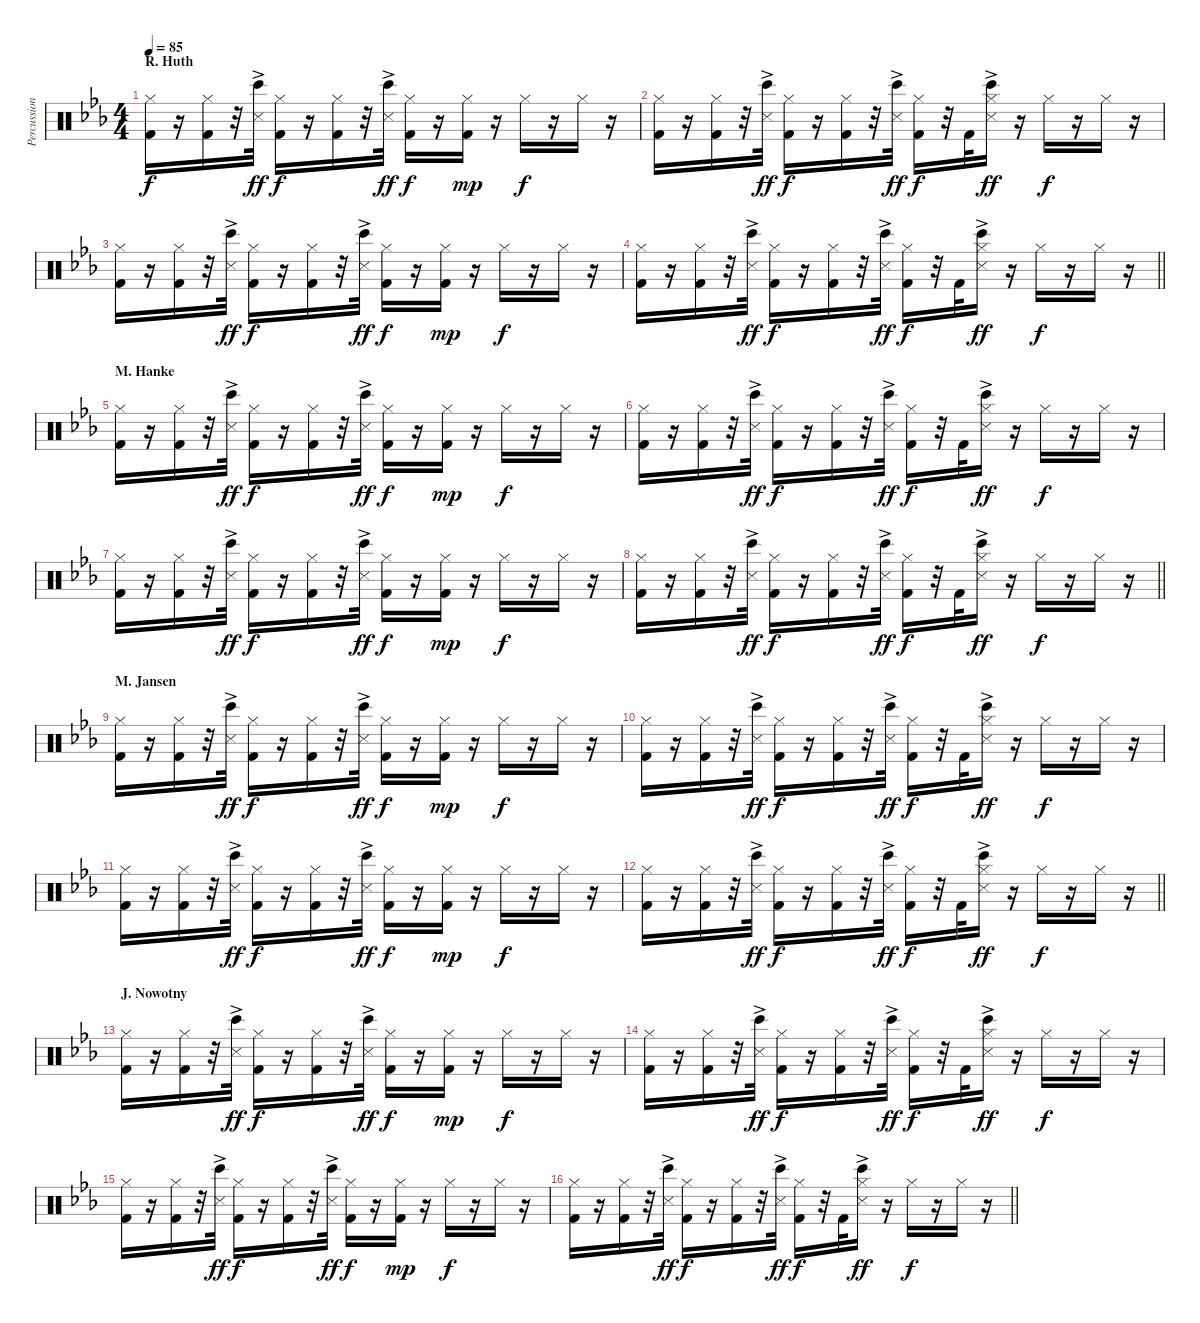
\track ("Percussion" "Percussion") {instrument percussion}
\staff {score}
\articulation defaults
\ts (4 4)
\section ("" "R. Huth")
\tempo 85
\clef neutral
\ks cminor
("Hi-Hat (closed)" "Kick (hit) 2").16{dy f} r.16 ("Hi-Hat (closed)" "Kick (hit) 2").16 r.32 ("Bongo High (hit)" "Metronome (hit)"{ac}).32{dy ff} ("Hi-Hat (closed)" "Kick (hit) 2").16{dy f} r.16 ("Hi-Hat (closed)" "Kick (hit) 2").16 r.32 ("Bongo High (hit)" "Metronome (hit)"{ac}).32{dy ff} ("Hi-Hat (closed)" "Kick (hit) 2").16{dy f} r.16 ("Hi-Hat (closed)" "Kick (hit) 2").16{dy mp} r.16 "Hi-Hat (closed)".16{dy f} r.16 "Hi-Hat (closed)".16 r.16 |
("Hi-Hat (closed)" "Kick (hit) 2").16 r.16 ("Hi-Hat (closed)" "Kick (hit) 2").16 r.32 ("Bongo High (hit)" "Metronome (hit)"{ac}).32{dy ff} ("Hi-Hat (closed)" "Kick (hit) 2").16{dy f} r.16 ("Hi-Hat (closed)" "Kick (hit) 2").16 r.32 ("Bongo High (hit)" "Metronome (hit)"{ac}).32{dy ff} ("Hi-Hat (closed)" "Kick (hit) 2").16{dy f} r.32 "Kick (hit) 2".32 ("Hi-Hat (closed)" "Bongo High (hit)" "Metronome (hit)"{ac}).16{dy ff} r.16 "Hi-Hat (closed)".16{dy f} r.16 "Hi-Hat (closed)".16 r.16 |
("Hi-Hat (closed)" "Kick (hit) 2").16 r.16 ("Hi-Hat (closed)" "Kick (hit) 2").16 r.32 ("Bongo High (hit)" "Metronome (hit)"{ac}).32{dy ff} ("Hi-Hat (closed)" "Kick (hit) 2").16{dy f} r.16 ("Hi-Hat (closed)" "Kick (hit) 2").16 r.32 ("Bongo High (hit)" "Metronome (hit)"{ac}).32{dy ff} ("Hi-Hat (closed)" "Kick (hit) 2").16{dy f} r.16 ("Hi-Hat (closed)" "Kick (hit) 2").16{dy mp} r.16 "Hi-Hat (closed)".16{dy f} r.16 "Hi-Hat (closed)".16 r.16 |
\barLineRight lightlight
("Hi-Hat (closed)" "Kick (hit) 2").16 r.16 ("Hi-Hat (closed)" "Kick (hit) 2").16 r.32 ("Bongo High (hit)" "Metronome (hit)"{ac}).32{dy ff} ("Hi-Hat (closed)" "Kick (hit) 2").16{dy f} r.16 ("Hi-Hat (closed)" "Kick (hit) 2").16 r.32 ("Bongo High (hit)" "Metronome (hit)"{ac}).32{dy ff} ("Hi-Hat (closed)" "Kick (hit) 2").16{dy f} r.32 "Kick (hit) 2".32 ("Hi-Hat (closed)" "Bongo High (hit)" "Metronome (hit)"{ac}).16{dy ff} r.16 "Hi-Hat (closed)".16{dy f} r.16 "Hi-Hat (closed)".16 r.16 |
\section ("" "M. Hanke")
("Hi-Hat (closed)" "Kick (hit) 2").16 r.16 ("Hi-Hat (closed)" "Kick (hit) 2").16 r.32 ("Bongo High (hit)" "Metronome (hit)"{ac}).32{dy ff} ("Hi-Hat (closed)" "Kick (hit) 2").16{dy f} r.16 ("Hi-Hat (closed)" "Kick (hit) 2").16 r.32 ("Bongo High (hit)" "Metronome (hit)"{ac}).32{dy ff} ("Hi-Hat (closed)" "Kick (hit) 2").16{dy f} r.16 ("Hi-Hat (closed)" "Kick (hit) 2").16{dy mp} r.16 "Hi-Hat (closed)".16{dy f} r.16 "Hi-Hat (closed)".16 r.16 |
("Hi-Hat (closed)" "Kick (hit) 2").16 r.16 ("Hi-Hat (closed)" "Kick (hit) 2").16 r.32 ("Bongo High (hit)" "Metronome (hit)"{ac}).32{dy ff} ("Hi-Hat (closed)" "Kick (hit) 2").16{dy f} r.16 ("Hi-Hat (closed)" "Kick (hit) 2").16 r.32 ("Bongo High (hit)" "Metronome (hit)"{ac}).32{dy ff} ("Hi-Hat (closed)" "Kick (hit) 2").16{dy f} r.32 "Kick (hit) 2".32 ("Hi-Hat (closed)" "Bongo High (hit)" "Metronome (hit)"{ac}).16{dy ff} r.16 "Hi-Hat (closed)".16{dy f} r.16 "Hi-Hat (closed)".16 r.16 |
("Hi-Hat (closed)" "Kick (hit) 2").16 r.16 ("Hi-Hat (closed)" "Kick (hit) 2").16 r.32 ("Bongo High (hit)" "Metronome (hit)"{ac}).32{dy ff} ("Hi-Hat (closed)" "Kick (hit) 2").16{dy f} r.16 ("Hi-Hat (closed)" "Kick (hit) 2").16 r.32 ("Bongo High (hit)" "Metronome (hit)"{ac}).32{dy ff} ("Hi-Hat (closed)" "Kick (hit) 2").16{dy f} r.16 ("Hi-Hat (closed)" "Kick (hit) 2").16{dy mp} r.16 "Hi-Hat (closed)".16{dy f} r.16 "Hi-Hat (closed)".16 r.16 |
\barLineRight lightlight
("Hi-Hat (closed)" "Kick (hit) 2").16 r.16 ("Hi-Hat (closed)" "Kick (hit) 2").16 r.32 ("Bongo High (hit)" "Metronome (hit)"{ac}).32{dy ff} ("Hi-Hat (closed)" "Kick (hit) 2").16{dy f} r.16 ("Hi-Hat (closed)" "Kick (hit) 2").16 r.32 ("Bongo High (hit)" "Metronome (hit)"{ac}).32{dy ff} ("Hi-Hat (closed)" "Kick (hit) 2").16{dy f} r.32 "Kick (hit) 2".32 ("Hi-Hat (closed)" "Bongo High (hit)" "Metronome (hit)"{ac}).16{dy ff} r.16 "Hi-Hat (closed)".16{dy f} r.16 "Hi-Hat (closed)".16 r.16 |
\section ("" "M. Jansen")
("Hi-Hat (closed)" "Kick (hit) 2").16 r.16 ("Hi-Hat (closed)" "Kick (hit) 2").16 r.32 ("Bongo High (hit)" "Metronome (hit)"{ac}).32{dy ff} ("Hi-Hat (closed)" "Kick (hit) 2").16{dy f} r.16 ("Hi-Hat (closed)" "Kick (hit) 2").16 r.32 ("Bongo High (hit)" "Metronome (hit)"{ac}).32{dy ff} ("Hi-Hat (closed)" "Kick (hit) 2").16{dy f} r.16 ("Hi-Hat (closed)" "Kick (hit) 2").16{dy mp} r.16 "Hi-Hat (closed)".16{dy f} r.16 "Hi-Hat (closed)".16 r.16 |
("Hi-Hat (closed)" "Kick (hit) 2").16 r.16 ("Hi-Hat (closed)" "Kick (hit) 2").16 r.32 ("Bongo High (hit)" "Metronome (hit)"{ac}).32{dy ff} ("Hi-Hat (closed)" "Kick (hit) 2").16{dy f} r.16 ("Hi-Hat (closed)" "Kick (hit) 2").16 r.32 ("Bongo High (hit)" "Metronome (hit)"{ac}).32{dy ff} ("Hi-Hat (closed)" "Kick (hit) 2").16{dy f} r.32 "Kick (hit) 2".32 ("Hi-Hat (closed)" "Bongo High (hit)" "Metronome (hit)"{ac}).16{dy ff} r.16 "Hi-Hat (closed)".16{dy f} r.16 "Hi-Hat (closed)".16 r.16 |
("Hi-Hat (closed)" "Kick (hit) 2").16 r.16 ("Hi-Hat (closed)" "Kick (hit) 2").16 r.32 ("Bongo High (hit)" "Metronome (hit)"{ac}).32{dy ff} ("Hi-Hat (closed)" "Kick (hit) 2").16{dy f} r.16 ("Hi-Hat (closed)" "Kick (hit) 2").16 r.32 ("Bongo High (hit)" "Metronome (hit)"{ac}).32{dy ff} ("Hi-Hat (closed)" "Kick (hit) 2").16{dy f} r.16 ("Hi-Hat (closed)" "Kick (hit) 2").16{dy mp} r.16 "Hi-Hat (closed)".16{dy f} r.16 "Hi-Hat (closed)".16 r.16 |
\barLineRight lightlight
("Hi-Hat (closed)" "Kick (hit) 2").16 r.16 ("Hi-Hat (closed)" "Kick (hit) 2").16 r.32 ("Bongo High (hit)" "Metronome (hit)"{ac}).32{dy ff} ("Hi-Hat (closed)" "Kick (hit) 2").16{dy f} r.16 ("Hi-Hat (closed)" "Kick (hit) 2").16 r.32 ("Bongo High (hit)" "Metronome (hit)"{ac}).32{dy ff} ("Hi-Hat (closed)" "Kick (hit) 2").16{dy f} r.32 "Kick (hit) 2".32 ("Hi-Hat (closed)" "Bongo High (hit)" "Metronome (hit)"{ac}).16{dy ff} r.16 "Hi-Hat (closed)".16{dy f} r.16 "Hi-Hat (closed)".16 r.16 |
\section ("" "J. Nowotny")
("Hi-Hat (closed)" "Kick (hit) 2").16 r.16 ("Hi-Hat (closed)" "Kick (hit) 2").16 r.32 ("Bongo High (hit)" "Metronome (hit)"{ac}).32{dy ff} ("Hi-Hat (closed)" "Kick (hit) 2").16{dy f} r.16 ("Hi-Hat (closed)" "Kick (hit) 2").16 r.32 ("Bongo High (hit)" "Metronome (hit)"{ac}).32{dy ff} ("Hi-Hat (closed)" "Kick (hit) 2").16{dy f} r.16 ("Hi-Hat (closed)" "Kick (hit) 2").16{dy mp} r.16 "Hi-Hat (closed)".16{dy f} r.16 "Hi-Hat (closed)".16 r.16 |
("Hi-Hat (closed)" "Kick (hit) 2").16 r.16 ("Hi-Hat (closed)" "Kick (hit) 2").16 r.32 ("Bongo High (hit)" "Metronome (hit)"{ac}).32{dy ff} ("Hi-Hat (closed)" "Kick (hit) 2").16{dy f} r.16 ("Hi-Hat (closed)" "Kick (hit) 2").16 r.32 ("Bongo High (hit)" "Metronome (hit)"{ac}).32{dy ff} ("Hi-Hat (closed)" "Kick (hit) 2").16{dy f} r.32 "Kick (hit) 2".32 ("Hi-Hat (closed)" "Bongo High (hit)" "Metronome (hit)"{ac}).16{dy ff} r.16 "Hi-Hat (closed)".16{dy f} r.16 "Hi-Hat (closed)".16 r.16 |
("Hi-Hat (closed)" "Kick (hit) 2").16 r.16 ("Hi-Hat (closed)" "Kick (hit) 2").16 r.32 ("Bongo High (hit)" "Metronome (hit)"{ac}).32{dy ff} ("Hi-Hat (closed)" "Kick (hit) 2").16{dy f} r.16 ("Hi-Hat (closed)" "Kick (hit) 2").16 r.32 ("Bongo High (hit)" "Metronome (hit)"{ac}).32{dy ff} ("Hi-Hat (closed)" "Kick (hit) 2").16{dy f} r.16 ("Hi-Hat (closed)" "Kick (hit) 2").16{dy mp} r.16 "Hi-Hat (closed)".16{dy f} r.16 "Hi-Hat (closed)".16 r.16 |
\barLineRight lightlight
("Hi-Hat (closed)" "Kick (hit) 2").16 r.16 ("Hi-Hat (closed)" "Kick (hit) 2").16 r.32 ("Bongo High (hit)" "Metronome (hit)"{ac}).32{dy ff} ("Hi-Hat (closed)" "Kick (hit) 2").16{dy f} r.16 ("Hi-Hat (closed)" "Kick (hit) 2").16 r.32 ("Bongo High (hit)" "Metronome (hit)"{ac}).32{dy ff} ("Hi-Hat (closed)" "Kick (hit) 2").16{dy f} r.32 "Kick (hit) 2".32 ("Hi-Hat (closed)" "Bongo High (hit)" "Metronome (hit)"{ac}).16{dy ff} r.16 "Hi-Hat (closed)".16{dy f} r.16 "Hi-Hat (closed)".16 r.16
